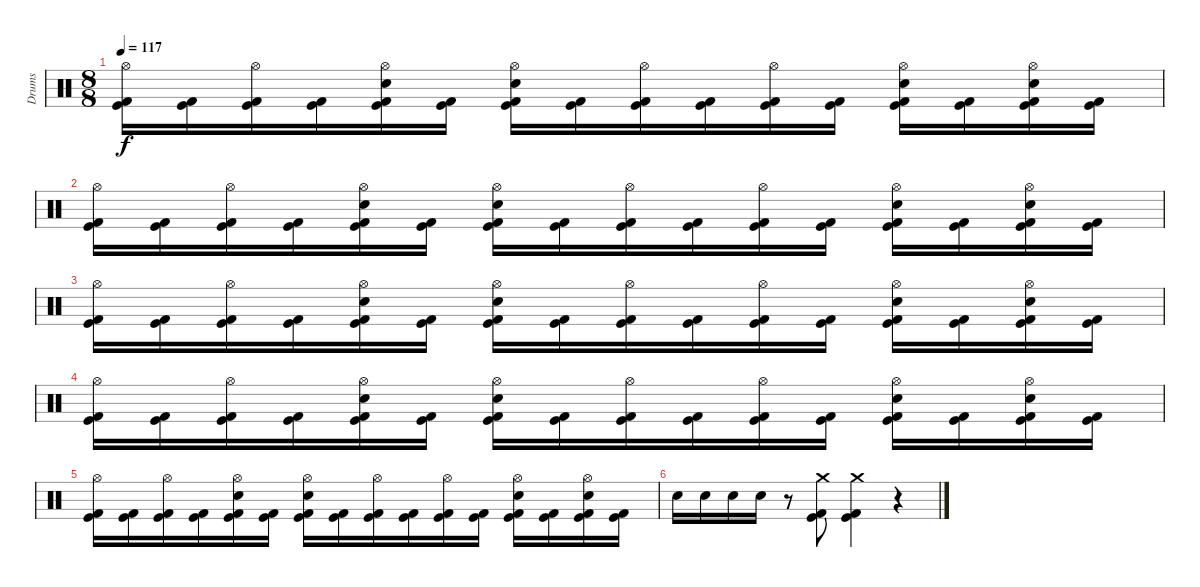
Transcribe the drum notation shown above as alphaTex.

\track ("Drums" "Drums") {instrument percussion}
\staff {score}
\articulation defaults
\ts (8 8)
\tempo 117
\clef neutral
\ks c
("Hi-Hat (open)" "Kick (hit)" "Kick (hit) 2").16{dy f} ("Kick (hit)" "Kick (hit) 2").16 ("Hi-Hat (open)" "Kick (hit)" "Kick (hit) 2").16 ("Kick (hit)" "Kick (hit) 2").16 ("Hi-Hat (open)" "Electric Snare (hit)" "Kick (hit)" "Kick (hit) 2").16 ("Kick (hit)" "Kick (hit) 2").16 ("Hi-Hat (open)" "Electric Snare (hit)" "Kick (hit)" "Kick (hit) 2").16 ("Kick (hit)" "Kick (hit) 2").16 ("Hi-Hat (open)" "Kick (hit)" "Kick (hit) 2").16 ("Kick (hit)" "Kick (hit) 2").16 ("Hi-Hat (open)" "Kick (hit)" "Kick (hit) 2").16 ("Kick (hit)" "Kick (hit) 2").16 ("Hi-Hat (open)" "Electric Snare (hit)" "Kick (hit)" "Kick (hit) 2").16 ("Kick (hit)" "Kick (hit) 2").16 ("Hi-Hat (open)" "Electric Snare (hit)" "Kick (hit)" "Kick (hit) 2").16 ("Kick (hit)" "Kick (hit) 2").16 |
("Hi-Hat (open)" "Kick (hit)" "Kick (hit) 2").16 ("Kick (hit)" "Kick (hit) 2").16 ("Hi-Hat (open)" "Kick (hit)" "Kick (hit) 2").16 ("Kick (hit)" "Kick (hit) 2").16 ("Hi-Hat (open)" "Electric Snare (hit)" "Kick (hit)" "Kick (hit) 2").16 ("Kick (hit)" "Kick (hit) 2").16 ("Hi-Hat (open)" "Electric Snare (hit)" "Kick (hit)" "Kick (hit) 2").16 ("Kick (hit)" "Kick (hit) 2").16 ("Hi-Hat (open)" "Kick (hit)" "Kick (hit) 2").16 ("Kick (hit)" "Kick (hit) 2").16 ("Hi-Hat (open)" "Kick (hit)" "Kick (hit) 2").16 ("Kick (hit)" "Kick (hit) 2").16 ("Hi-Hat (open)" "Electric Snare (hit)" "Kick (hit)" "Kick (hit) 2").16 ("Kick (hit)" "Kick (hit) 2").16 ("Hi-Hat (open)" "Electric Snare (hit)" "Kick (hit)" "Kick (hit) 2").16 ("Kick (hit)" "Kick (hit) 2").16 |
("Hi-Hat (open)" "Kick (hit)" "Kick (hit) 2").16 ("Kick (hit)" "Kick (hit) 2").16 ("Hi-Hat (open)" "Kick (hit)" "Kick (hit) 2").16 ("Kick (hit)" "Kick (hit) 2").16 ("Hi-Hat (open)" "Electric Snare (hit)" "Kick (hit)" "Kick (hit) 2").16 ("Kick (hit)" "Kick (hit) 2").16 ("Hi-Hat (open)" "Electric Snare (hit)" "Kick (hit)" "Kick (hit) 2").16 ("Kick (hit)" "Kick (hit) 2").16 ("Hi-Hat (open)" "Kick (hit)" "Kick (hit) 2").16 ("Kick (hit)" "Kick (hit) 2").16 ("Hi-Hat (open)" "Kick (hit)" "Kick (hit) 2").16 ("Kick (hit)" "Kick (hit) 2").16 ("Hi-Hat (open)" "Electric Snare (hit)" "Kick (hit)" "Kick (hit) 2").16 ("Kick (hit)" "Kick (hit) 2").16 ("Hi-Hat (open)" "Electric Snare (hit)" "Kick (hit)" "Kick (hit) 2").16 ("Kick (hit)" "Kick (hit) 2").16 |
("Hi-Hat (open)" "Kick (hit)" "Kick (hit) 2").16 ("Kick (hit)" "Kick (hit) 2").16 ("Hi-Hat (open)" "Kick (hit)" "Kick (hit) 2").16 ("Kick (hit)" "Kick (hit) 2").16 ("Hi-Hat (open)" "Electric Snare (hit)" "Kick (hit)" "Kick (hit) 2").16 ("Kick (hit)" "Kick (hit) 2").16 ("Hi-Hat (open)" "Electric Snare (hit)" "Kick (hit)" "Kick (hit) 2").16 ("Kick (hit)" "Kick (hit) 2").16 ("Hi-Hat (open)" "Kick (hit)" "Kick (hit) 2").16 ("Kick (hit)" "Kick (hit) 2").16 ("Hi-Hat (open)" "Kick (hit)" "Kick (hit) 2").16 ("Kick (hit)" "Kick (hit) 2").16 ("Hi-Hat (open)" "Electric Snare (hit)" "Kick (hit)" "Kick (hit) 2").16 ("Kick (hit)" "Kick (hit) 2").16 ("Hi-Hat (open)" "Electric Snare (hit)" "Kick (hit)" "Kick (hit) 2").16 ("Kick (hit)" "Kick (hit) 2").16 |
("Hi-Hat (open)" "Kick (hit)" "Kick (hit) 2").16 ("Kick (hit)" "Kick (hit) 2").16 ("Hi-Hat (open)" "Kick (hit)" "Kick (hit) 2").16 ("Kick (hit)" "Kick (hit) 2").16 ("Hi-Hat (open)" "Electric Snare (hit)" "Kick (hit)" "Kick (hit) 2").16 ("Kick (hit)" "Kick (hit) 2").16 ("Hi-Hat (open)" "Electric Snare (hit)" "Kick (hit)" "Kick (hit) 2").16 ("Kick (hit)" "Kick (hit) 2").16 ("Hi-Hat (open)" "Kick (hit)" "Kick (hit) 2").16 ("Kick (hit)" "Kick (hit) 2").16 ("Hi-Hat (open)" "Kick (hit)" "Kick (hit) 2").16 ("Kick (hit)" "Kick (hit) 2").16 ("Hi-Hat (open)" "Electric Snare (hit)" "Kick (hit)" "Kick (hit) 2").16 ("Kick (hit)" "Kick (hit) 2").16 ("Hi-Hat (open)" "Electric Snare (hit)" "Kick (hit)" "Kick (hit) 2").16 ("Kick (hit)" "Kick (hit) 2").16 |
"Electric Snare (hit)".16 "Electric Snare (hit)".16 "Electric Snare (hit)".16 "Electric Snare (hit)".16 r.8 ("Crash medium (hit)" "Kick (hit)" "Kick (hit) 2").8 ("Crash medium (hit)" "Kick (hit)" "Kick (hit) 2").4 r.4
